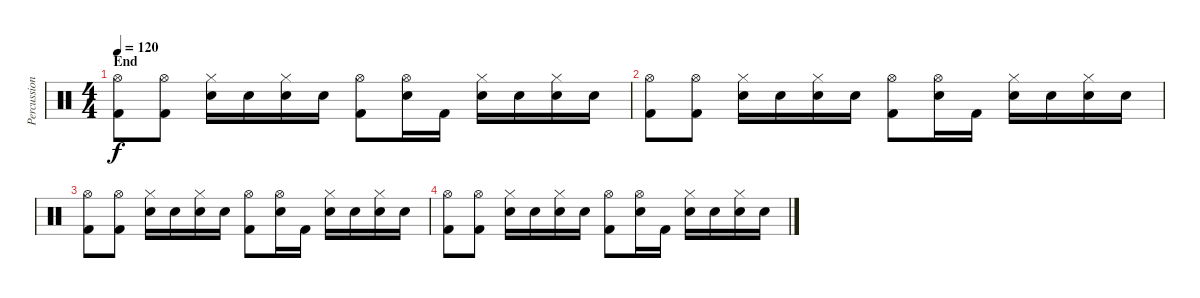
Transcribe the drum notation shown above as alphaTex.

\track ("Percussions" "Percussion") {instrument percussion}
\staff {score}
\articulation defaults
\ts (4 4)
\section ("" "End")
\tempo 120
\clef neutral
\ks c
("Hi-Hat (open)" "Kick (hit) 2").8{dy f} ("Hi-Hat (open)" "Kick (hit) 2").8 ("Hi-Hat (closed)" "Electric Snare (hit)").16 "Electric Snare (hit)".16 ("Hi-Hat (closed)" "Electric Snare (hit)").16 "Electric Snare (hit)".16 ("Hi-Hat (open)" "Kick (hit) 2").8 ("Hi-Hat (open)" "Electric Snare (hit)").16 "Kick (hit) 2".16 ("Hi-Hat (closed)" "Electric Snare (hit)").16 "Electric Snare (hit)".16 ("Hi-Hat (closed)" "Electric Snare (hit)").16 "Electric Snare (hit)".16 |
("Hi-Hat (open)" "Kick (hit) 2").8 ("Hi-Hat (open)" "Kick (hit) 2").8 ("Hi-Hat (closed)" "Electric Snare (hit)").16 "Electric Snare (hit)".16 ("Hi-Hat (closed)" "Electric Snare (hit)").16 "Electric Snare (hit)".16 ("Hi-Hat (open)" "Kick (hit) 2").8 ("Hi-Hat (open)" "Electric Snare (hit)").16 "Kick (hit) 2".16 ("Hi-Hat (closed)" "Electric Snare (hit)").16 "Electric Snare (hit)".16 ("Hi-Hat (closed)" "Electric Snare (hit)").16 "Electric Snare (hit)".16 |
("Hi-Hat (open)" "Kick (hit) 2").8 ("Hi-Hat (open)" "Kick (hit) 2").8 ("Hi-Hat (closed)" "Electric Snare (hit)").16 "Electric Snare (hit)".16 ("Hi-Hat (closed)" "Electric Snare (hit)").16 "Electric Snare (hit)".16 ("Hi-Hat (open)" "Kick (hit) 2").8 ("Hi-Hat (open)" "Electric Snare (hit)").16 "Kick (hit) 2".16 ("Hi-Hat (closed)" "Electric Snare (hit)").16 "Electric Snare (hit)".16 ("Hi-Hat (closed)" "Electric Snare (hit)").16 "Electric Snare (hit)".16 |
("Hi-Hat (open)" "Kick (hit) 2").8 ("Hi-Hat (open)" "Kick (hit) 2").8 ("Hi-Hat (closed)" "Electric Snare (hit)").16 "Electric Snare (hit)".16 ("Hi-Hat (closed)" "Electric Snare (hit)").16 "Electric Snare (hit)".16 ("Hi-Hat (open)" "Kick (hit) 2").8 ("Hi-Hat (open)" "Electric Snare (hit)").16 "Kick (hit) 2".16 ("Hi-Hat (closed)" "Electric Snare (hit)").16 "Electric Snare (hit)".16 ("Hi-Hat (closed)" "Electric Snare (hit)").16 "Electric Snare (hit)".16
